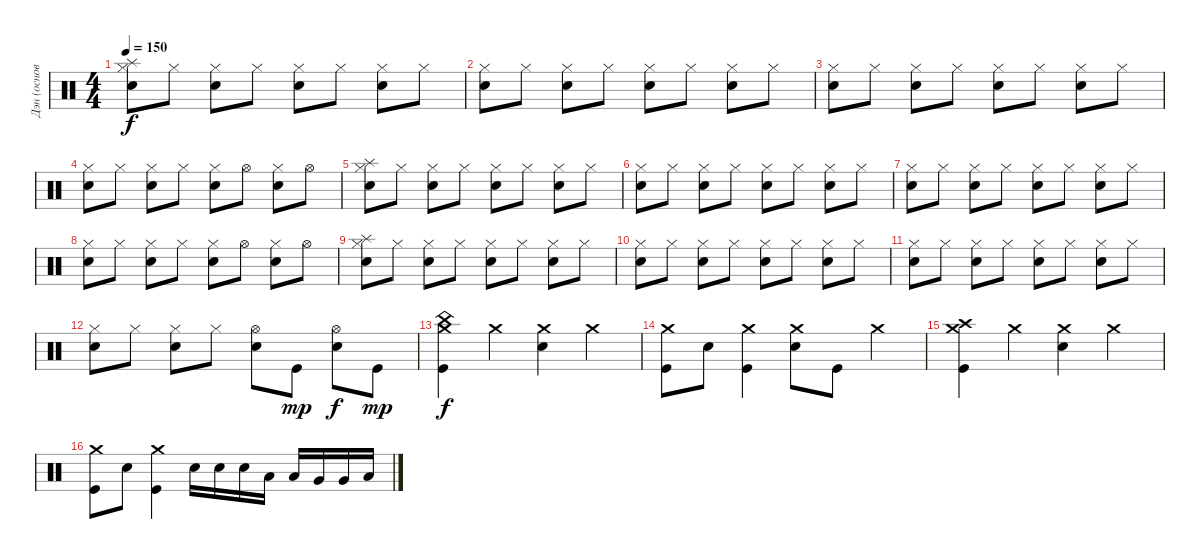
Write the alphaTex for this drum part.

\track ("Дэн (основа)" "Дэн (основ") {instrument percussion}
\staff {score}
\articulation defaults
\ts (4 4)
\tempo 150
\clef neutral
\ks c
("Hi-Hat (closed)" "Electric Snare (hit)" "Splash (hit)").8{dy f} "Hi-Hat (closed)".8 ("Hi-Hat (closed)" "Electric Snare (hit)").8 "Hi-Hat (closed)".8 ("Hi-Hat (closed)" "Electric Snare (hit)").8 "Hi-Hat (closed)".8 ("Hi-Hat (closed)" "Electric Snare (hit)").8 "Hi-Hat (closed)".8 |
("Hi-Hat (closed)" "Electric Snare (hit)").8 "Hi-Hat (closed)".8 ("Hi-Hat (closed)" "Electric Snare (hit)").8 "Hi-Hat (closed)".8 ("Hi-Hat (closed)" "Electric Snare (hit)").8 "Hi-Hat (closed)".8 ("Hi-Hat (closed)" "Electric Snare (hit)").8 "Hi-Hat (closed)".8 |
("Hi-Hat (closed)" "Electric Snare (hit)").8 "Hi-Hat (closed)".8 ("Hi-Hat (closed)" "Electric Snare (hit)").8 "Hi-Hat (closed)".8 ("Hi-Hat (closed)" "Electric Snare (hit)").8 "Hi-Hat (closed)".8 ("Hi-Hat (closed)" "Electric Snare (hit)").8 "Hi-Hat (closed)".8 |
("Hi-Hat (closed)" "Electric Snare (hit)").8 "Hi-Hat (closed)".8 ("Hi-Hat (closed)" "Electric Snare (hit)").8 "Hi-Hat (closed)".8 ("Hi-Hat (closed)" "Electric Snare (hit)").8 "Hi-Hat (open)".8 ("Hi-Hat (closed)" "Electric Snare (hit)").8 "Hi-Hat (open)".8 |
("Hi-Hat (closed)" "Electric Snare (hit)" "Splash (hit)").8 "Hi-Hat (closed)".8 ("Hi-Hat (closed)" "Electric Snare (hit)").8 "Hi-Hat (closed)".8 ("Hi-Hat (closed)" "Electric Snare (hit)").8 "Hi-Hat (closed)".8 ("Hi-Hat (closed)" "Electric Snare (hit)").8 "Hi-Hat (closed)".8 |
("Hi-Hat (closed)" "Electric Snare (hit)").8 "Hi-Hat (closed)".8 ("Hi-Hat (closed)" "Electric Snare (hit)").8 "Hi-Hat (closed)".8 ("Hi-Hat (closed)" "Electric Snare (hit)").8 "Hi-Hat (closed)".8 ("Hi-Hat (closed)" "Electric Snare (hit)").8 "Hi-Hat (closed)".8 |
("Hi-Hat (closed)" "Electric Snare (hit)").8 "Hi-Hat (closed)".8 ("Hi-Hat (closed)" "Electric Snare (hit)").8 "Hi-Hat (closed)".8 ("Hi-Hat (closed)" "Electric Snare (hit)").8 "Hi-Hat (closed)".8 ("Hi-Hat (closed)" "Electric Snare (hit)").8 "Hi-Hat (closed)".8 |
("Hi-Hat (closed)" "Electric Snare (hit)").8 "Hi-Hat (closed)".8 ("Hi-Hat (closed)" "Electric Snare (hit)").8 "Hi-Hat (closed)".8 ("Hi-Hat (closed)" "Electric Snare (hit)").8 "Hi-Hat (open)".8 ("Hi-Hat (closed)" "Electric Snare (hit)").8 "Hi-Hat (open)".8 |
("Hi-Hat (closed)" "Electric Snare (hit)" "Splash (hit)").8 "Hi-Hat (closed)".8 ("Hi-Hat (closed)" "Electric Snare (hit)").8 "Hi-Hat (closed)".8 ("Hi-Hat (closed)" "Electric Snare (hit)").8 "Hi-Hat (closed)".8 ("Hi-Hat (closed)" "Electric Snare (hit)").8 "Hi-Hat (closed)".8 |
("Hi-Hat (closed)" "Electric Snare (hit)").8 "Hi-Hat (closed)".8 ("Hi-Hat (closed)" "Electric Snare (hit)").8 "Hi-Hat (closed)".8 ("Hi-Hat (closed)" "Electric Snare (hit)").8 "Hi-Hat (closed)".8 ("Hi-Hat (closed)" "Electric Snare (hit)").8 "Hi-Hat (closed)".8 |
("Hi-Hat (closed)" "Electric Snare (hit)").8 "Hi-Hat (closed)".8 ("Hi-Hat (closed)" "Electric Snare (hit)").8 "Hi-Hat (closed)".8 ("Hi-Hat (closed)" "Electric Snare (hit)").8 "Hi-Hat (closed)".8 ("Hi-Hat (closed)" "Electric Snare (hit)").8 "Hi-Hat (closed)".8 |
("Hi-Hat (closed)" "Electric Snare (hit)").8 "Hi-Hat (closed)".8 ("Hi-Hat (closed)" "Electric Snare (hit)").8 "Hi-Hat (closed)".8 ("Hi-Hat (open)" "Electric Snare (hit)").8 "Kick (hit)".8{dy mp} ("Hi-Hat (open)" "Electric Snare (hit)").8{dy f} "Kick (hit)".8{dy mp} |
("China (hit)" "Crash medium (hit)" "Kick (hit)").4{dy f} "Crash medium (hit)".4 ("Crash medium (hit)" "Electric Snare (hit)").4 "Crash medium (hit)".4 |
("Crash medium (hit)" "Kick (hit)").8 "Electric Snare (hit)".8 ("Crash medium (hit)" "Kick (hit)").4 ("Crash medium (hit)" "Electric Snare (hit)").8 "Kick (hit)".8 "Crash medium (hit)".4 |
("Crash high (hit)" "Crash medium (hit)" "Kick (hit)").4 "Crash medium (hit)".4 ("Crash medium (hit)" "Electric Snare (hit)").4 "Crash medium (hit)".4 |
("Crash medium (hit)" "Kick (hit)").8 "Electric Snare (hit)".8 ("Crash medium (hit)" "Kick (hit)").4 "Electric Snare (hit)".16 "Electric Snare (hit)".16 "Electric Snare (hit)".16 "Low Tom (hit)".16 "Low Tom (hit)".16 "Very Low Tom (hit)".16 "Very Low Tom (hit)".16 "Low Floor Tom (hit)".16
